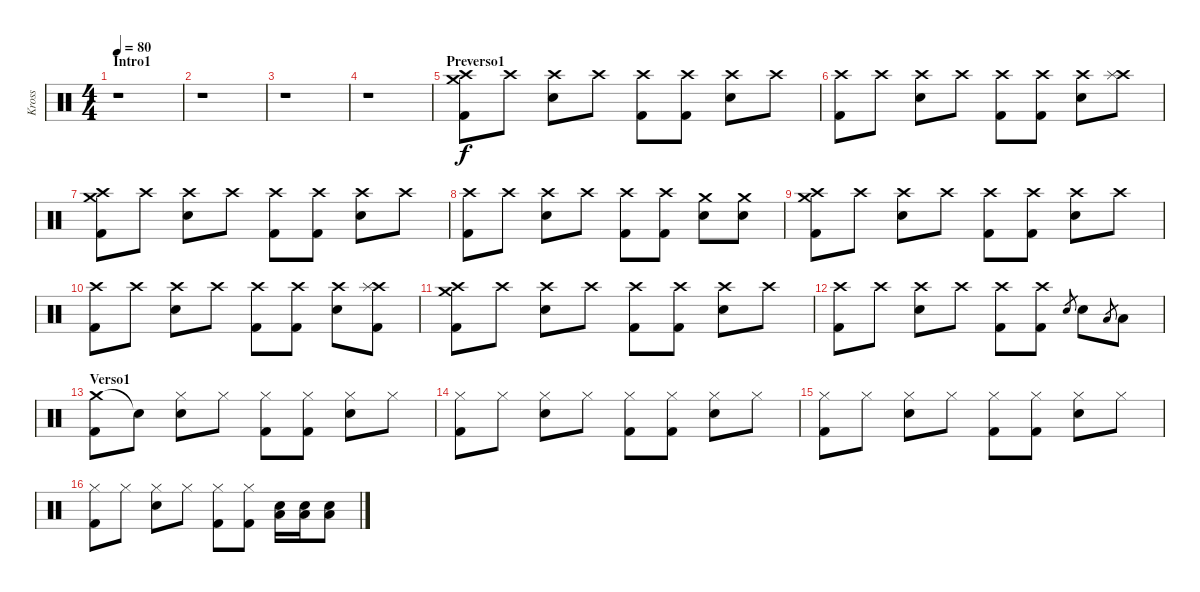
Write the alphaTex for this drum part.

\track ("Kross" "Kross") {instrument percussion}
\staff {score}
\articulation defaults
\ts (4 4)
\section ("" "Intro1")
\tempo 80
\clef neutral
\ks c
r.1{dy f} |
r.1 |
r.1 |
r.1 |
\section ("" "Preverso1")
("Crash high (hit)" "Crash medium (hit)" "Kick (hit) 2").8 "Crash high (hit)".8 ("Crash high (hit)" "Snare (hit) 2").8 "Crash high (hit)".8 ("Crash high (hit)" "Kick (hit) 2").8 ("Crash high (hit)" "Kick (hit) 2").8 ("Crash high (hit)" "Snare (hit) 2").8 "Crash high (hit)".8 |
("Crash high (hit)" "Kick (hit) 2").8 "Crash high (hit)".8 ("Crash high (hit)" "Snare (hit) 2").8 "Crash high (hit)".8 ("Crash high (hit)" "Kick (hit) 2").8 ("Crash high (hit)" "Kick (hit) 2").8 ("Crash high (hit)" "Snare (hit) 2").8 ("Crash high (hit)" "Splash (hit)").8 |
("Crash high (hit)" "Crash medium (hit)" "Kick (hit) 2").8 "Crash high (hit)".8 ("Crash high (hit)" "Snare (hit) 2").8 "Crash high (hit)".8 ("Crash high (hit)" "Kick (hit) 2").8 ("Crash high (hit)" "Kick (hit) 2").8 ("Crash high (hit)" "Snare (hit) 2").8 "Crash high (hit)".8 |
("Crash high (hit)" "Kick (hit) 2").8 "Crash high (hit)".8 ("Crash high (hit)" "Snare (hit) 2").8 "Crash high (hit)".8 ("Crash high (hit)" "Kick (hit) 2").8 ("Crash high (hit)" "Kick (hit) 2").8 ("Crash medium (hit)" "Snare (hit) 2").8 ("Crash medium (hit)" "Snare (hit) 2").8 |
("Crash high (hit)" "Crash medium (hit)" "Kick (hit) 2").8 "Crash high (hit)".8 ("Crash high (hit)" "Snare (hit) 2").8 "Crash high (hit)".8 ("Crash high (hit)" "Kick (hit) 2").8 ("Crash high (hit)" "Kick (hit) 2").8 ("Crash high (hit)" "Snare (hit) 2").8 "Crash high (hit)".8 |
("Crash high (hit)" "Kick (hit) 2").8 "Crash high (hit)".8 ("Crash high (hit)" "Snare (hit) 2").8 "Crash high (hit)".8 ("Crash high (hit)" "Kick (hit) 2").8 ("Crash high (hit)" "Kick (hit) 2").8 ("Crash high (hit)" "Snare (hit) 2").8 ("Crash high (hit)" "Splash (hit)" "Kick (hit) 2").8 |
("Crash high (hit)" "Crash medium (hit)" "Kick (hit) 2").8 "Crash high (hit)".8 ("Crash high (hit)" "Snare (hit) 2").8 "Crash high (hit)".8 ("Crash high (hit)" "Kick (hit) 2").8 ("Crash high (hit)" "Kick (hit) 2").8 ("Crash high (hit)" "Snare (hit) 2").8 "Crash high (hit)".8 |
("Crash high (hit)" "Kick (hit) 2").8 "Crash high (hit)".8 ("Crash high (hit)" "Snare (hit) 2").8 "Crash high (hit)".8 ("Crash high (hit)" "Kick (hit) 2").8 ("Crash high (hit)" "Kick (hit) 2").8 "Snare (hit) 2".8{gr} "Snare (hit) 2".8 "Low Tom (hit)".8{gr} "Low Tom (hit)".8 |
\section ("" "Verso1")
("Crash medium (hit)" "Kick (hit) 2").8 "Snare (hit)"{t}.8 ("Hi-Hat (closed)" "Snare (hit) 2").8 "Hi-Hat (closed)".8 ("Hi-Hat (closed)" "Kick (hit) 2").8 ("Hi-Hat (closed)" "Kick (hit) 2").8 ("Hi-Hat (closed)" "Snare (hit) 2").8 "Hi-Hat (closed)".8 |
("Hi-Hat (closed)" "Kick (hit) 2").8 "Hi-Hat (closed)".8 ("Hi-Hat (closed)" "Snare (hit) 2").8 "Hi-Hat (closed)".8 ("Hi-Hat (closed)" "Kick (hit) 2").8 ("Hi-Hat (closed)" "Kick (hit) 2").8 ("Hi-Hat (closed)" "Snare (hit) 2").8 "Hi-Hat (closed)".8 |
("Hi-Hat (closed)" "Kick (hit) 2").8 "Hi-Hat (closed)".8 ("Hi-Hat (closed)" "Snare (hit) 2").8 "Hi-Hat (closed)".8 ("Hi-Hat (closed)" "Kick (hit) 2").8 ("Hi-Hat (closed)" "Kick (hit) 2").8 ("Hi-Hat (closed)" "Snare (hit) 2").8 "Hi-Hat (closed)".8 |
("Hi-Hat (closed)" "Kick (hit) 2").8 "Hi-Hat (closed)".8 ("Hi-Hat (closed)" "Snare (hit) 2").8 "Hi-Hat (closed)".8 ("Hi-Hat (closed)" "Kick (hit) 2").8 ("Hi-Hat (closed)" "Kick (hit) 2").8 ("Low Tom (hit)" "Snare (hit) 2").16 ("Low Tom (hit)" "Snare (hit) 2").16 ("Low Tom (hit)" "Snare (hit) 2").8
